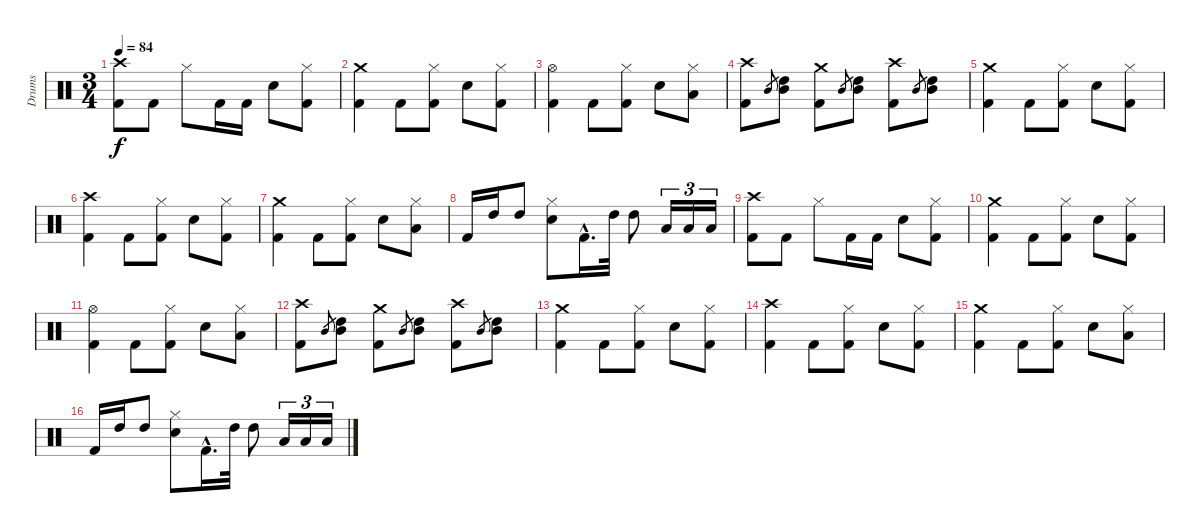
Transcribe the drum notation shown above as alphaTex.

\track ("Drums" "Drums") {instrument percussion}
\staff {score}
\articulation defaults
\ts (3 4)
\tempo 84
\clef neutral
\ks c
("Kick (hit) 2" "Crash high (hit)").8{dy f} "Kick (hit) 2".8 "Hi-Hat (closed)".8 "Kick (hit) 2".16 "Kick (hit) 2".16 "Snare (hit) 2".8 ("Kick (hit) 2" "Hi-Hat (closed)").8 |
("Kick (hit) 2" "Crash medium (hit)").4 "Kick (hit) 2".8 ("Kick (hit) 2" "Hi-Hat (closed)").8 "Snare (hit) 2".8 ("Kick (hit) 2" "Hi-Hat (closed)").8 |
("Kick (hit) 2" "Hi-Hat (open)").4 "Kick (hit) 2".8 ("Kick (hit) 2" "Hi-Hat (closed)").8 "Snare (hit) 2".8 ("Hi-Hat (closed)" "Low Tom (hit)").8 |
("Kick (hit) 2" "Crash high (hit)").8 "Mid Tom (hit)".8{gr} ("Mid Tom (hit)" "High Tom (hit)").8 ("Kick (hit) 2" "Crash medium (hit)").8 "Mid Tom (hit)".8{gr} ("Mid Tom (hit)" "High Tom (hit)").8 ("Kick (hit) 2" "Crash high (hit)").8 "Mid Tom (hit)".8{gr} ("Mid Tom (hit)" "High Tom (hit)").8 |
("Kick (hit) 2" "Crash medium (hit)").4 "Kick (hit) 2".8 ("Kick (hit) 2" "Hi-Hat (closed)").8 "Snare (hit) 2".8 ("Kick (hit) 2" "Hi-Hat (closed)").8 |
("Kick (hit) 2" "Crash high (hit)").4 "Kick (hit) 2".8 ("Kick (hit) 2" "Hi-Hat (closed)").8 "Snare (hit) 2".8 ("Kick (hit) 2" "Hi-Hat (closed)").8 |
("Kick (hit) 2" "Crash medium (hit)").4 "Kick (hit) 2".8 ("Kick (hit) 2" "Hi-Hat (closed)").8 "Snare (hit) 2".8 ("Hi-Hat (closed)" "Low Tom (hit)").8 |
"Kick (hit) 2".16 "High Tom (hit)".16 "High Tom (hit)".8 ("Snare (hit) 2" "Hi-Hat (closed)").8 "Kick (hit) 2"{hac}.16{d} "High Tom (hit)".32 "High Tom (hit)".8 "Low Tom (hit)".16{tu (3 2)} "Low Tom (hit)".16{tu (3 2)} "Low Tom (hit)".16{tu (3 2)} |
("Kick (hit) 2" "Crash high (hit)").8 "Kick (hit) 2".8 "Hi-Hat (closed)".8 "Kick (hit) 2".16 "Kick (hit) 2".16 "Snare (hit) 2".8 ("Kick (hit) 2" "Hi-Hat (closed)").8 |
("Kick (hit) 2" "Crash medium (hit)").4 "Kick (hit) 2".8 ("Kick (hit) 2" "Hi-Hat (closed)").8 "Snare (hit) 2".8 ("Kick (hit) 2" "Hi-Hat (closed)").8 |
("Kick (hit) 2" "Hi-Hat (open)").4 "Kick (hit) 2".8 ("Kick (hit) 2" "Hi-Hat (closed)").8 "Snare (hit) 2".8 ("Hi-Hat (closed)" "Low Tom (hit)").8 |
("Kick (hit) 2" "Crash high (hit)").8 "Mid Tom (hit)".8{gr} ("Mid Tom (hit)" "High Tom (hit)").8 ("Kick (hit) 2" "Crash medium (hit)").8 "Mid Tom (hit)".8{gr} ("Mid Tom (hit)" "High Tom (hit)").8 ("Kick (hit) 2" "Crash high (hit)").8 "Mid Tom (hit)".8{gr} ("Mid Tom (hit)" "High Tom (hit)").8 |
("Kick (hit) 2" "Crash medium (hit)").4 "Kick (hit) 2".8 ("Kick (hit) 2" "Hi-Hat (closed)").8 "Snare (hit) 2".8 ("Kick (hit) 2" "Hi-Hat (closed)").8 |
("Kick (hit) 2" "Crash high (hit)").4 "Kick (hit) 2".8 ("Kick (hit) 2" "Hi-Hat (closed)").8 "Snare (hit) 2".8 ("Kick (hit) 2" "Hi-Hat (closed)").8 |
("Kick (hit) 2" "Crash medium (hit)").4 "Kick (hit) 2".8 ("Kick (hit) 2" "Hi-Hat (closed)").8 "Snare (hit) 2".8 ("Hi-Hat (closed)" "Low Tom (hit)").8 |
"Kick (hit) 2".16 "High Tom (hit)".16 "High Tom (hit)".8 ("Snare (hit) 2" "Hi-Hat (closed)").8 "Kick (hit) 2"{hac}.16{d} "High Tom (hit)".32 "High Tom (hit)".8 "Low Tom (hit)".16{tu (3 2)} "Low Tom (hit)".16{tu (3 2)} "Low Tom (hit)".16{tu (3 2)}
